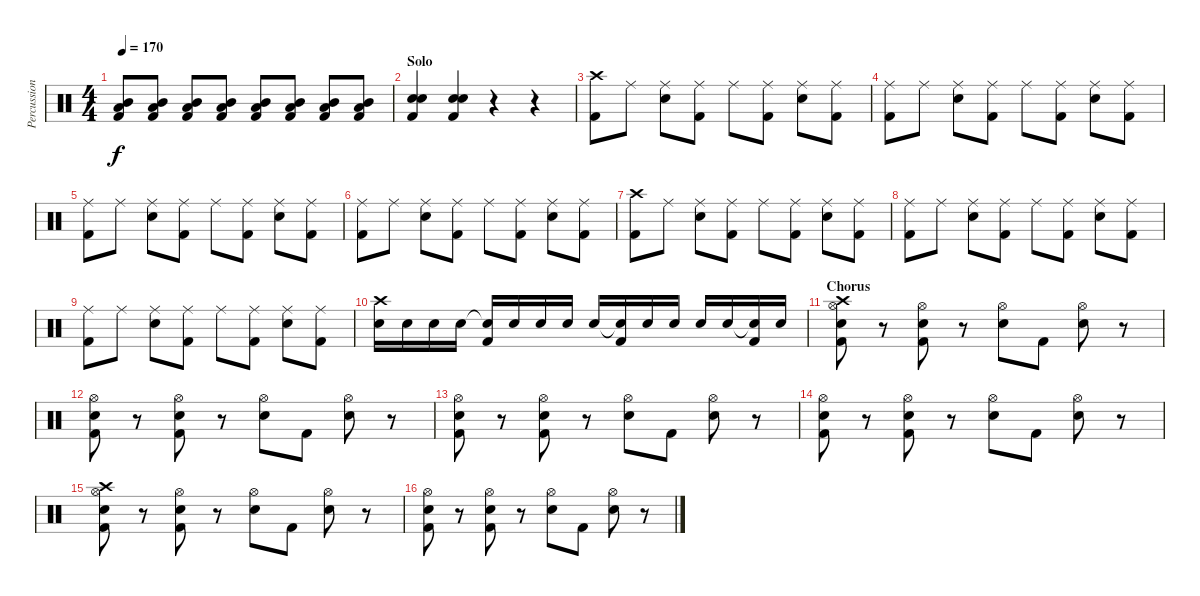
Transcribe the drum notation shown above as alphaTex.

\track ("Percussion" "Percussion") {instrument percussion}
\staff {score}
\articulation defaults
\ts (4 4)
\tempo 170
\clef neutral
\ks c
("Mid Tom (hit)" "Low Tom (hit)" "Kick (hit) 2").8{dy f} ("Mid Tom (hit)" "Low Tom (hit)" "Kick (hit) 2").8 ("Mid Tom (hit)" "Low Tom (hit)" "Kick (hit) 2").8 ("Mid Tom (hit)" "Low Tom (hit)" "Kick (hit) 2").8 ("Mid Tom (hit)" "Low Tom (hit)" "Kick (hit) 2").8 ("Mid Tom (hit)" "Low Tom (hit)" "Kick (hit) 2").8 ("Mid Tom (hit)" "Low Tom (hit)" "Kick (hit) 2").8 ("Mid Tom (hit)" "Low Tom (hit)" "Kick (hit) 2").8 |
\section ("" "Solo")
("Electric Snare (hit)" "Snare (hit) 2" "Kick (hit) 2").4 ("Electric Snare (hit)" "Snare (hit) 2" "Kick (hit) 2").4 r.4 r.4 |
("Crash high (hit)" "Kick (hit) 2").8 "Ride (middle)".8 ("Ride (middle)" "Snare (hit) 2").8 ("Ride (middle)" "Kick (hit) 2").8 "Ride (middle)".8 ("Ride (middle)" "Kick (hit) 2").8 ("Ride (middle)" "Snare (hit) 2").8 ("Ride (middle)" "Kick (hit) 2").8 |
("Ride (middle)" "Kick (hit) 2").8 "Ride (middle)".8 ("Ride (middle)" "Snare (hit) 2").8 ("Ride (middle)" "Kick (hit) 2").8 "Ride (middle)".8 ("Ride (middle)" "Kick (hit) 2").8 ("Ride (middle)" "Snare (hit) 2").8 ("Ride (middle)" "Kick (hit) 2").8 |
("Ride (middle)" "Kick (hit) 2").8 "Ride (middle)".8 ("Ride (middle)" "Snare (hit) 2").8 ("Ride (middle)" "Kick (hit) 2").8 "Ride (middle)".8 ("Ride (middle)" "Kick (hit) 2").8 ("Ride (middle)" "Snare (hit) 2").8 ("Ride (middle)" "Kick (hit) 2").8 |
("Ride (middle)" "Kick (hit) 2").8 "Ride (middle)".8 ("Ride (middle)" "Snare (hit) 2").8 ("Ride (middle)" "Kick (hit) 2").8 "Ride (middle)".8 ("Ride (middle)" "Kick (hit) 2").8 ("Ride (middle)" "Snare (hit) 2").8 ("Ride (middle)" "Kick (hit) 2").8 |
("Crash high (hit)" "Kick (hit) 2").8 "Ride (middle)".8 ("Ride (middle)" "Snare (hit) 2").8 ("Ride (middle)" "Kick (hit) 2").8 "Ride (middle)".8 ("Ride (middle)" "Kick (hit) 2").8 ("Ride (middle)" "Snare (hit) 2").8 ("Ride (middle)" "Kick (hit) 2").8 |
("Ride (middle)" "Kick (hit) 2").8 "Ride (middle)".8 ("Ride (middle)" "Snare (hit) 2").8 ("Ride (middle)" "Kick (hit) 2").8 "Ride (middle)".8 ("Ride (middle)" "Kick (hit) 2").8 ("Ride (middle)" "Snare (hit) 2").8 ("Ride (middle)" "Kick (hit) 2").8 |
("Ride (middle)" "Kick (hit) 2").8 "Ride (middle)".8 ("Ride (middle)" "Snare (hit) 2").8 ("Ride (middle)" "Kick (hit) 2").8 "Ride (middle)".8 ("Ride (middle)" "Kick (hit) 2").8 ("Ride (middle)" "Snare (hit) 2").8 ("Ride (middle)" "Kick (hit) 2").8 |
("Crash high (hit)" "Snare (hit) 2").16 "Snare (hit) 2".16 "Snare (hit) 2".16 "Snare (hit) 2".16 ("Snare (hit)"{t} "Kick (hit) 2").16 "Snare (hit) 2".16 "Snare (hit) 2".16 "Snare (hit) 2".16 "Snare (hit) 2".16 ("Snare (hit)"{t} "Kick (hit) 2").16 "Snare (hit) 2".16 "Snare (hit) 2".16 "Snare (hit) 2".16 "Snare (hit) 2".16 ("Snare (hit)"{t} "Kick (hit) 2").16 "Snare (hit) 2".16 |
\section ("" "Chorus")
("Crash high (hit)" "Hi-Hat (open)" "Snare (hit) 2" "Kick (hit) 2").8 r.8 ("Hi-Hat (open)" "Snare (hit) 2" "Kick (hit) 2").8 r.8 ("Hi-Hat (open)" "Snare (hit) 2").8 "Kick (hit) 2".8 ("Hi-Hat (open)" "Snare (hit) 2").8 r.8 |
("Hi-Hat (open)" "Snare (hit) 2" "Kick (hit) 2").8 r.8 ("Hi-Hat (open)" "Snare (hit) 2" "Kick (hit) 2").8 r.8 ("Hi-Hat (open)" "Snare (hit) 2").8 "Kick (hit) 2".8 ("Hi-Hat (open)" "Snare (hit) 2").8 r.8 |
("Hi-Hat (open)" "Snare (hit) 2" "Kick (hit) 2").8 r.8 ("Hi-Hat (open)" "Snare (hit) 2" "Kick (hit) 2").8 r.8 ("Hi-Hat (open)" "Snare (hit) 2").8 "Kick (hit) 2".8 ("Hi-Hat (open)" "Snare (hit) 2").8 r.8 |
("Hi-Hat (open)" "Snare (hit) 2" "Kick (hit) 2").8 r.8 ("Hi-Hat (open)" "Snare (hit) 2" "Kick (hit) 2").8 r.8 ("Hi-Hat (open)" "Snare (hit) 2").8 "Kick (hit) 2".8 ("Hi-Hat (open)" "Snare (hit) 2").8 r.8 |
("Crash high (hit)" "Hi-Hat (open)" "Snare (hit) 2" "Kick (hit) 2").8 r.8 ("Hi-Hat (open)" "Snare (hit) 2" "Kick (hit) 2").8 r.8 ("Hi-Hat (open)" "Snare (hit) 2").8 "Kick (hit) 2".8 ("Hi-Hat (open)" "Snare (hit) 2").8 r.8 |
("Hi-Hat (open)" "Snare (hit) 2" "Kick (hit) 2").8 r.8 ("Hi-Hat (open)" "Snare (hit) 2" "Kick (hit) 2").8 r.8 ("Hi-Hat (open)" "Snare (hit) 2").8 "Kick (hit) 2".8 ("Hi-Hat (open)" "Snare (hit) 2").8 r.8
